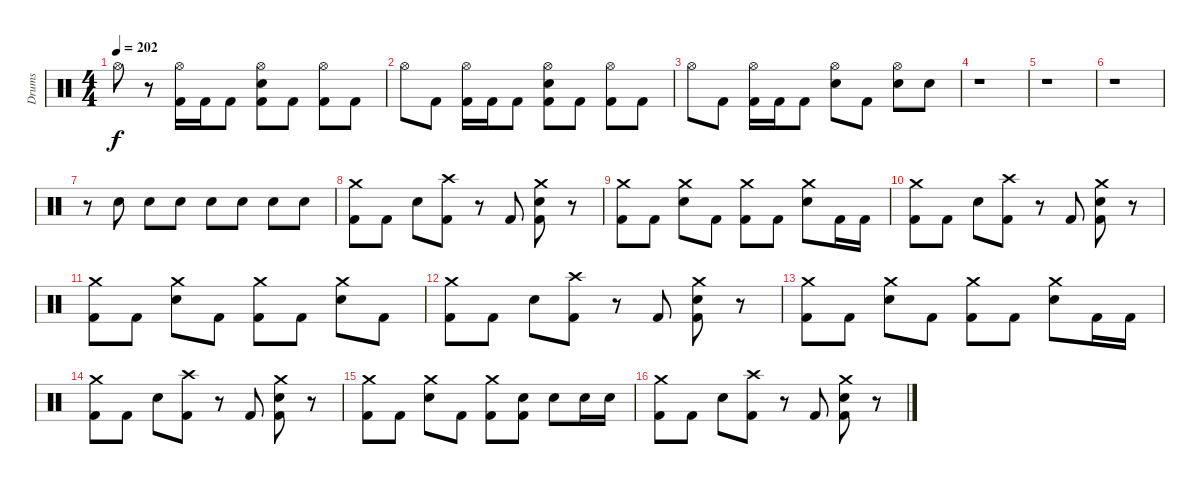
\track ("Drums" "Drums") {instrument percussion}
\staff {score}
\articulation defaults
\ts (4 4)
\tempo 202
\clef neutral
\ks c "Hi-Hat (open)".8{dy f}
r.8 ("Hi-Hat (open)" "Kick (hit) 2").16 "Kick (hit) 2".16 "Kick (hit) 2".8 ("Hi-Hat (open)" "Electric Snare (hit)" "Kick (hit) 2").8 "Kick (hit) 2".8 ("Hi-Hat (open)" "Kick (hit) 2").8 "Kick (hit) 2".8 |
"Hi-Hat (open)".8 "Kick (hit) 2".8 ("Hi-Hat (open)" "Kick (hit) 2").16 "Kick (hit) 2".16 "Kick (hit) 2".8 ("Hi-Hat (open)" "Electric Snare (hit)" "Kick (hit) 2").8 "Kick (hit) 2".8 ("Hi-Hat (open)" "Kick (hit) 2").8 "Kick (hit) 2".8 |
"Hi-Hat (open)".8 "Kick (hit) 2".8 ("Hi-Hat (open)" "Kick (hit) 2").16 "Kick (hit) 2".16 "Kick (hit) 2".8 ("Hi-Hat (open)" "Electric Snare (hit)").8 "Kick (hit) 2".8 ("Hi-Hat (open)" "Electric Snare (hit)").8 "Electric Snare (hit)".8 |
r.1 |
r.1 |
r.1 |
r.8 "Electric Snare (hit)".8 "Electric Snare (hit)".8 "Electric Snare (hit)".8 "Electric Snare (hit)".8 "Electric Snare (hit)".8 "Electric Snare (hit)".8 "Electric Snare (hit)".8 |
("Crash medium (hit)" "Kick (hit) 2").8 "Kick (hit) 2".8 "Electric Snare (hit)".8 ("Crash high (hit)" "Kick (hit) 2").8 r.8 "Kick (hit) 2".8 ("Crash medium (hit)" "Electric Snare (hit)" "Kick (hit) 2").8 r.8 |
("Crash medium (hit)" "Kick (hit) 2").8 "Kick (hit) 2".8 ("Crash medium (hit)" "Electric Snare (hit)").8 "Kick (hit) 2".8 ("Crash medium (hit)" "Kick (hit) 2").8 "Kick (hit) 2".8 ("Crash medium (hit)" "Electric Snare (hit)").8 "Kick (hit) 2".16 "Kick (hit) 2".16 |
("Crash medium (hit)" "Kick (hit) 2").8 "Kick (hit) 2".8 "Electric Snare (hit)".8 ("Crash high (hit)" "Kick (hit) 2").8 r.8 "Kick (hit) 2".8 ("Crash medium (hit)" "Electric Snare (hit)" "Kick (hit) 2").8 r.8 |
("Crash medium (hit)" "Kick (hit) 2").8 "Kick (hit) 2".8 ("Crash medium (hit)" "Electric Snare (hit)").8 "Kick (hit) 2".8 ("Crash medium (hit)" "Kick (hit) 2").8 "Kick (hit) 2".8 ("Crash medium (hit)" "Electric Snare (hit)").8 "Kick (hit) 2".8 |
("Crash medium (hit)" "Kick (hit) 2").8 "Kick (hit) 2".8 "Electric Snare (hit)".8 ("Crash high (hit)" "Kick (hit) 2").8 r.8 "Kick (hit) 2".8 ("Crash medium (hit)" "Electric Snare (hit)" "Kick (hit) 2").8 r.8 |
("Crash medium (hit)" "Kick (hit) 2").8 "Kick (hit) 2".8 ("Crash medium (hit)" "Electric Snare (hit)").8 "Kick (hit) 2".8 ("Crash medium (hit)" "Kick (hit) 2").8 "Kick (hit) 2".8 ("Crash medium (hit)" "Electric Snare (hit)").8 "Kick (hit) 2".16 "Kick (hit) 2".16 |
("Crash medium (hit)" "Kick (hit) 2").8 "Kick (hit) 2".8 "Electric Snare (hit)".8 ("Crash high (hit)" "Kick (hit) 2").8 r.8 "Kick (hit) 2".8 ("Crash medium (hit)" "Electric Snare (hit)" "Kick (hit) 2").8 r.8 |
("Crash medium (hit)" "Kick (hit) 2").8 "Kick (hit) 2".8 ("Crash medium (hit)" "Electric Snare (hit)").8 "Kick (hit) 2".8 ("Crash medium (hit)" "Kick (hit) 2").8 ("Electric Snare (hit)" "Kick (hit) 2").8 "Electric Snare (hit)".8 "Electric Snare (hit)".16 "Electric Snare (hit)".16 |
("Crash medium (hit)" "Kick (hit) 2").8 "Kick (hit) 2".8 "Electric Snare (hit)".8 ("Crash high (hit)" "Kick (hit) 2").8 r.8 "Kick (hit) 2".8 ("Crash medium (hit)" "Electric Snare (hit)" "Kick (hit) 2").8 r.8
